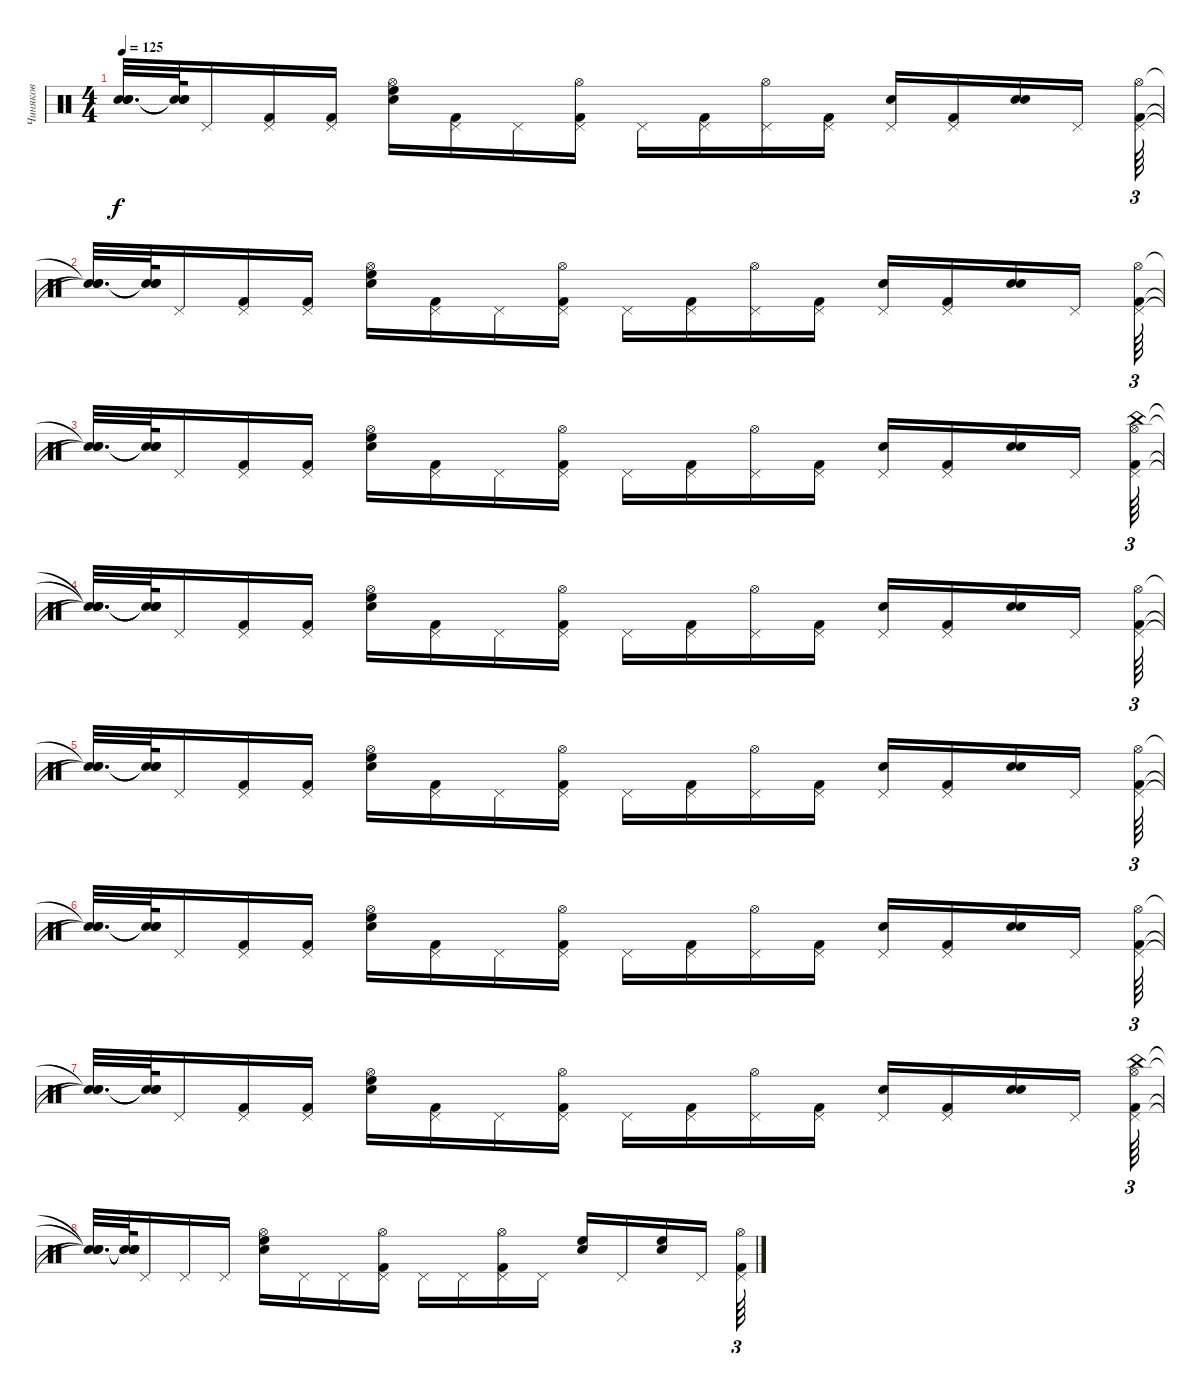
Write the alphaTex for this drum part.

\track ("Чиняков" "Чиняков") {instrument percussion}
\staff {score}
\articulation defaults
\ts (4 4)
\tempo 125
\clef neutral
\ks c
("Snare (hit)"{t} "Snare (hit)"{t} "Snare (hit)"{t}).32{d dy f} ("Snare (hit)"{t} "Snare (hit)"{t} "Snare (hit)"{t}).64 "Pedal Hi-Hat (hit)".16 ("Pedal Hi-Hat (hit)" "Kick (hit) 2").16 ("Pedal Hi-Hat (hit)" "Kick (hit) 2").16 ("Electric Snare (hit)" "High Floor Tom (hit)" "Hi-Hat (open)").16 ("Pedal Hi-Hat (hit)" "Kick (hit) 2").16 "Pedal Hi-Hat (hit)".16 ("Pedal Hi-Hat (hit)" "Kick (hit) 2" "Hi-Hat (open)").16 "Pedal Hi-Hat (hit)".16 ("Pedal Hi-Hat (hit)" "Kick (hit) 2").16 ("Pedal Hi-Hat (hit)" "Hi-Hat (open)").16 ("Pedal Hi-Hat (hit)" "Kick (hit) 2").16 ("Pedal Hi-Hat (hit)" "Electric Snare (hit)").16 ("Pedal Hi-Hat (hit)" "Kick (hit) 2").16 ("Electric Snare (hit)" "Electric Snare (hit)").16 "Pedal Hi-Hat (hit)".16 ("Pedal Hi-Hat (hit)" "Kick (hit) 2" "Hi-Hat (open)").64{tu (3 2)} |
("Snare (hit)"{t} "Snare (hit)"{t} "Snare (hit)"{t}).32{d} ("Snare (hit)"{t} "Snare (hit)"{t} "Snare (hit)"{t}).64 "Pedal Hi-Hat (hit)".16 ("Pedal Hi-Hat (hit)" "Kick (hit) 2").16 ("Pedal Hi-Hat (hit)" "Kick (hit) 2").16 ("Electric Snare (hit)" "High Floor Tom (hit)" "Hi-Hat (open)").16 ("Pedal Hi-Hat (hit)" "Kick (hit) 2").16 "Pedal Hi-Hat (hit)".16 ("Pedal Hi-Hat (hit)" "Kick (hit) 2" "Hi-Hat (open)").16 "Pedal Hi-Hat (hit)".16 ("Pedal Hi-Hat (hit)" "Kick (hit) 2").16 ("Pedal Hi-Hat (hit)" "Hi-Hat (open)").16 ("Pedal Hi-Hat (hit)" "Kick (hit) 2").16 ("Pedal Hi-Hat (hit)" "Electric Snare (hit)").16 ("Pedal Hi-Hat (hit)" "Kick (hit) 2").16 ("Electric Snare (hit)" "Electric Snare (hit)").16 "Pedal Hi-Hat (hit)".16 ("Pedal Hi-Hat (hit)" "Kick (hit) 2" "Hi-Hat (open)").64{tu (3 2)} |
("Snare (hit)"{t} "Snare (hit)"{t} "Snare (hit)"{t}).32{d} ("Snare (hit)"{t} "Snare (hit)"{t} "Snare (hit)"{t}).64 "Pedal Hi-Hat (hit)".16 ("Pedal Hi-Hat (hit)" "Kick (hit) 2").16 ("Pedal Hi-Hat (hit)" "Kick (hit) 2").16 ("Electric Snare (hit)" "High Floor Tom (hit)" "Hi-Hat (open)").16 ("Pedal Hi-Hat (hit)" "Kick (hit) 2").16 "Pedal Hi-Hat (hit)".16 ("Pedal Hi-Hat (hit)" "Kick (hit) 2" "Hi-Hat (open)").16 "Pedal Hi-Hat (hit)".16 ("Pedal Hi-Hat (hit)" "Kick (hit) 2").16 ("Pedal Hi-Hat (hit)" "Hi-Hat (open)").16 ("Pedal Hi-Hat (hit)" "Kick (hit) 2").16 ("Pedal Hi-Hat (hit)" "Electric Snare (hit)").16 ("Pedal Hi-Hat (hit)" "Kick (hit) 2").16 ("Electric Snare (hit)" "Electric Snare (hit)").16 "Pedal Hi-Hat (hit)".16 ("Pedal Hi-Hat (hit)" "Kick (hit) 2" "Hi-Hat (open)" "China (hit)").64{tu (3 2)} |
("Snare (hit)"{t} "Snare (hit)"{t} "Snare (hit)"{t} "Snare (hit)"{t}).32{d} ("Snare (hit)"{t} "Snare (hit)"{t} "Snare (hit)"{t} "Snare (hit)"{t}).64 "Pedal Hi-Hat (hit)".16 ("Pedal Hi-Hat (hit)" "Kick (hit) 2").16 ("Pedal Hi-Hat (hit)" "Kick (hit) 2").16 ("Electric Snare (hit)" "High Floor Tom (hit)" "Hi-Hat (open)").16 ("Pedal Hi-Hat (hit)" "Kick (hit) 2").16 "Pedal Hi-Hat (hit)".16 ("Pedal Hi-Hat (hit)" "Kick (hit) 2" "Hi-Hat (open)").16 "Pedal Hi-Hat (hit)".16 ("Pedal Hi-Hat (hit)" "Kick (hit) 2").16 ("Pedal Hi-Hat (hit)" "Hi-Hat (open)").16 ("Pedal Hi-Hat (hit)" "Kick (hit) 2").16 ("Pedal Hi-Hat (hit)" "Electric Snare (hit)").16 ("Pedal Hi-Hat (hit)" "Kick (hit) 2").16 ("Electric Snare (hit)" "Electric Snare (hit)").16 "Pedal Hi-Hat (hit)".16 ("Pedal Hi-Hat (hit)" "Kick (hit) 2" "Hi-Hat (open)").64{tu (3 2)} |
("Snare (hit)"{t} "Snare (hit)"{t} "Snare (hit)"{t}).32{d} ("Snare (hit)"{t} "Snare (hit)"{t} "Snare (hit)"{t}).64 "Pedal Hi-Hat (hit)".16 ("Pedal Hi-Hat (hit)" "Kick (hit) 2").16 ("Pedal Hi-Hat (hit)" "Kick (hit) 2").16 ("Electric Snare (hit)" "High Floor Tom (hit)" "Hi-Hat (open)").16 ("Pedal Hi-Hat (hit)" "Kick (hit) 2").16 "Pedal Hi-Hat (hit)".16 ("Pedal Hi-Hat (hit)" "Kick (hit) 2" "Hi-Hat (open)").16 "Pedal Hi-Hat (hit)".16 ("Pedal Hi-Hat (hit)" "Kick (hit) 2").16 ("Pedal Hi-Hat (hit)" "Hi-Hat (open)").16 ("Pedal Hi-Hat (hit)" "Kick (hit) 2").16 ("Pedal Hi-Hat (hit)" "Electric Snare (hit)").16 ("Pedal Hi-Hat (hit)" "Kick (hit) 2").16 ("Electric Snare (hit)" "Electric Snare (hit)").16 "Pedal Hi-Hat (hit)".16 ("Pedal Hi-Hat (hit)" "Kick (hit) 2" "Hi-Hat (open)").64{tu (3 2)} |
("Snare (hit)"{t} "Snare (hit)"{t} "Snare (hit)"{t}).32{d} ("Snare (hit)"{t} "Snare (hit)"{t} "Snare (hit)"{t}).64 "Pedal Hi-Hat (hit)".16 ("Pedal Hi-Hat (hit)" "Kick (hit) 2").16 ("Pedal Hi-Hat (hit)" "Kick (hit) 2").16 ("Electric Snare (hit)" "High Floor Tom (hit)" "Hi-Hat (open)").16 ("Pedal Hi-Hat (hit)" "Kick (hit) 2").16 "Pedal Hi-Hat (hit)".16 ("Pedal Hi-Hat (hit)" "Kick (hit) 2" "Hi-Hat (open)").16 "Pedal Hi-Hat (hit)".16 ("Pedal Hi-Hat (hit)" "Kick (hit) 2").16 ("Pedal Hi-Hat (hit)" "Hi-Hat (open)").16 ("Pedal Hi-Hat (hit)" "Kick (hit) 2").16 ("Pedal Hi-Hat (hit)" "Electric Snare (hit)").16 ("Pedal Hi-Hat (hit)" "Kick (hit) 2").16 ("Electric Snare (hit)" "Electric Snare (hit)").16 "Pedal Hi-Hat (hit)".16 ("Pedal Hi-Hat (hit)" "Kick (hit) 2" "Hi-Hat (open)").64{tu (3 2)} |
("Snare (hit)"{t} "Snare (hit)"{t} "Snare (hit)"{t}).32{d} ("Snare (hit)"{t} "Snare (hit)"{t} "Snare (hit)"{t}).64 "Pedal Hi-Hat (hit)".16 ("Pedal Hi-Hat (hit)" "Kick (hit) 2").16 ("Pedal Hi-Hat (hit)" "Kick (hit) 2").16 ("Electric Snare (hit)" "High Floor Tom (hit)" "Hi-Hat (open)").16 ("Pedal Hi-Hat (hit)" "Kick (hit) 2").16 "Pedal Hi-Hat (hit)".16 ("Pedal Hi-Hat (hit)" "Kick (hit) 2" "Hi-Hat (open)").16 "Pedal Hi-Hat (hit)".16 ("Pedal Hi-Hat (hit)" "Kick (hit) 2").16 ("Pedal Hi-Hat (hit)" "Hi-Hat (open)").16 ("Pedal Hi-Hat (hit)" "Kick (hit) 2").16 ("Pedal Hi-Hat (hit)" "Electric Snare (hit)").16 ("Pedal Hi-Hat (hit)" "Kick (hit) 2").16 ("Electric Snare (hit)" "Electric Snare (hit)").16 "Pedal Hi-Hat (hit)".16 ("Pedal Hi-Hat (hit)" "Kick (hit) 2" "Hi-Hat (open)" "China (hit)").64{tu (3 2)} |
("Snare (hit)"{t} "Snare (hit)"{t} "Snare (hit)"{t} "Snare (hit)"{t}).32{d} ("Snare (hit)"{t} "Snare (hit)"{t} "Snare (hit)"{t} "Snare (hit)"{t}).64 "Pedal Hi-Hat (hit)".16 "Pedal Hi-Hat (hit)".16 "Pedal Hi-Hat (hit)".16 ("Electric Snare (hit)" "High Floor Tom (hit)" "Hi-Hat (open)").16 "Pedal Hi-Hat (hit)".16 "Pedal Hi-Hat (hit)".16 ("Pedal Hi-Hat (hit)" "Kick (hit) 2" "Hi-Hat (open)").16 "Pedal Hi-Hat (hit)".16 "Pedal Hi-Hat (hit)".16 ("Pedal Hi-Hat (hit)" "Kick (hit) 2" "Hi-Hat (open)").16 "Pedal Hi-Hat (hit)".16 ("High Floor Tom (hit)" "Electric Snare (hit)").16 "Pedal Hi-Hat (hit)".16 ("High Floor Tom (hit)" "Electric Snare (hit)").16 "Pedal Hi-Hat (hit)".16 ("Pedal Hi-Hat (hit)" "Kick (hit) 2" "Hi-Hat (open)").64{tu (3 2)}
